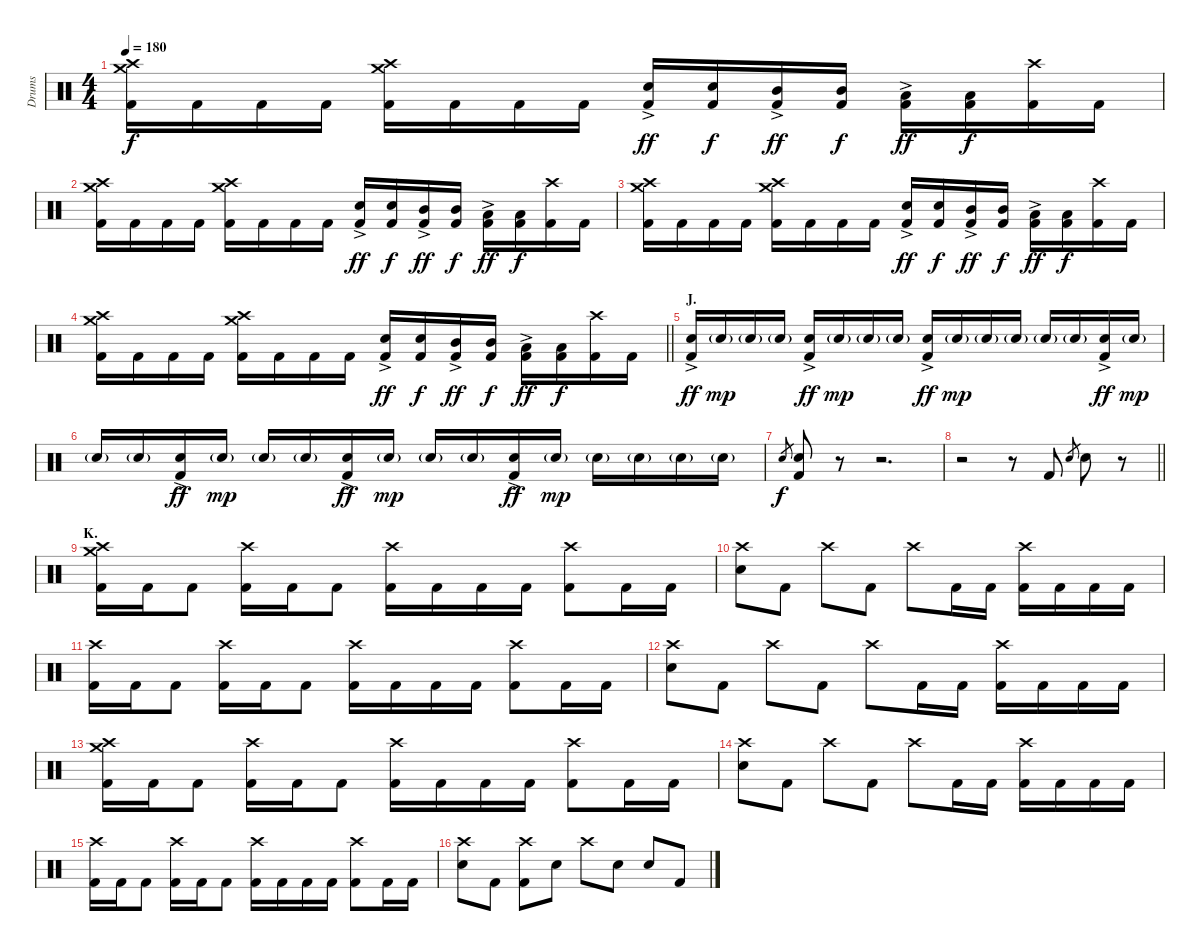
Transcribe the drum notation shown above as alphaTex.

\track ("Drums" "Drums") {instrument percussion}
\staff {score}
\articulation defaults
\ts (4 4)
\tempo 180
\clef neutral
\ks c
("Crash medium (hit)" "Crash high (hit)" "Kick (hit) 2").16{dy f} "Kick (hit) 2".16 "Kick (hit) 2".16 "Kick (hit) 2".16 ("Crash medium (hit)" "Crash high (hit)" "Kick (hit) 2").16 "Kick (hit) 2".16 "Kick (hit) 2".16 "Kick (hit) 2".16 ("Electric Snare (hit)"{ac} "Kick (hit) 2").16{dy ff} ("Electric Snare (hit)" "Kick (hit) 2").16{dy f} ("Mid Tom (hit)"{ac} "Kick (hit) 2").16{dy ff} ("Mid Tom (hit)" "Kick (hit) 2").16{dy f} ("Low Tom (hit)"{ac} "Kick (hit) 2").16{dy ff} ("Low Tom (hit)" "Kick (hit) 2").16{dy f} ("Crash high (hit)" "Kick (hit) 2").16 "Kick (hit) 2".16 |
("Crash medium (hit)" "Crash high (hit)" "Kick (hit) 2").16 "Kick (hit) 2".16 "Kick (hit) 2".16 "Kick (hit) 2".16 ("Crash medium (hit)" "Crash high (hit)" "Kick (hit) 2").16 "Kick (hit) 2".16 "Kick (hit) 2".16 "Kick (hit) 2".16 ("Electric Snare (hit)"{ac} "Kick (hit) 2").16{dy ff} ("Electric Snare (hit)" "Kick (hit) 2").16{dy f} ("Mid Tom (hit)"{ac} "Kick (hit) 2").16{dy ff} ("Mid Tom (hit)" "Kick (hit) 2").16{dy f} ("Low Tom (hit)"{ac} "Kick (hit) 2").16{dy ff} ("Low Tom (hit)" "Kick (hit) 2").16{dy f} ("Crash high (hit)" "Kick (hit) 2").16 "Kick (hit) 2".16 |
("Crash medium (hit)" "Crash high (hit)" "Kick (hit) 2").16 "Kick (hit) 2".16 "Kick (hit) 2".16 "Kick (hit) 2".16 ("Crash medium (hit)" "Crash high (hit)" "Kick (hit) 2").16 "Kick (hit) 2".16 "Kick (hit) 2".16 "Kick (hit) 2".16 ("Electric Snare (hit)"{ac} "Kick (hit) 2").16{dy ff} ("Electric Snare (hit)" "Kick (hit) 2").16{dy f} ("Mid Tom (hit)"{ac} "Kick (hit) 2").16{dy ff} ("Mid Tom (hit)" "Kick (hit) 2").16{dy f} ("Low Tom (hit)"{ac} "Kick (hit) 2").16{dy ff} ("Low Tom (hit)" "Kick (hit) 2").16{dy f} ("Crash high (hit)" "Kick (hit) 2").16 "Kick (hit) 2".16 |
\barLineRight lightlight
("Crash medium (hit)" "Crash high (hit)" "Kick (hit) 2").16 "Kick (hit) 2".16 "Kick (hit) 2".16 "Kick (hit) 2".16 ("Crash medium (hit)" "Crash high (hit)" "Kick (hit) 2").16 "Kick (hit) 2".16 "Kick (hit) 2".16 "Kick (hit) 2".16 ("Electric Snare (hit)"{ac} "Kick (hit) 2").16{dy ff} ("Electric Snare (hit)" "Kick (hit) 2").16{dy f} ("Mid Tom (hit)"{ac} "Kick (hit) 2").16{dy ff} ("Mid Tom (hit)" "Kick (hit) 2").16{dy f} ("Low Tom (hit)"{ac} "Kick (hit) 2").16{dy ff} ("Low Tom (hit)" "Kick (hit) 2").16{dy f} ("Crash high (hit)" "Kick (hit) 2").16 "Kick (hit) 2".16 |
\section ("" "J.")
("Electric Snare (hit)"{ac} "Kick (hit) 2").16{dy ff} "Electric Snare (hit)"{g}.16{dy mp} "Electric Snare (hit)"{g}.16 "Electric Snare (hit)"{g}.16 ("Electric Snare (hit)"{ac} "Kick (hit) 2").16{dy ff} "Electric Snare (hit)"{g}.16{dy mp} "Electric Snare (hit)"{g}.16 "Electric Snare (hit)"{g}.16 ("Electric Snare (hit)"{ac} "Kick (hit) 2").16{dy ff} "Electric Snare (hit)"{g}.16{dy mp} "Electric Snare (hit)"{g}.16 "Electric Snare (hit)"{g}.16 "Electric Snare (hit)"{g}.16 "Electric Snare (hit)"{g}.16 ("Electric Snare (hit)"{ac} "Kick (hit) 2").16{dy ff} "Electric Snare (hit)"{g}.16{dy mp} |
"Electric Snare (hit)"{g}.16 "Electric Snare (hit)"{g}.16 ("Electric Snare (hit)"{ac} "Kick (hit) 2").16{dy ff} "Electric Snare (hit)"{g}.16{dy mp} "Electric Snare (hit)"{g}.16 "Electric Snare (hit)"{g}.16 ("Electric Snare (hit)"{ac} "Kick (hit) 2").16{dy ff} "Electric Snare (hit)"{g}.16{dy mp} "Electric Snare (hit)"{g}.16 "Electric Snare (hit)"{g}.16 ("Electric Snare (hit)"{ac} "Kick (hit) 2").16{dy ff} "Electric Snare (hit)"{g}.16{dy mp} "Electric Snare (hit)"{g}.16 "Electric Snare (hit)"{g}.16 "Electric Snare (hit)"{g}.16 "Electric Snare (hit)"{g}.16 |
"Electric Snare (hit)".8{gr dy f} ("Electric Snare (hit)" "Kick (hit) 2").8 r.8 r.2{d} |
\barLineRight lightlight
r.2 r.8 "Kick (hit) 2".8 "Electric Snare (hit)".8{gr} "Electric Snare (hit)".8 r.8 |
\section ("" "K.")
("Crash medium (hit)" "Crash high (hit)" "Kick (hit) 2").16 "Kick (hit) 2".16 "Kick (hit) 2".8 ("Crash high (hit)" "Kick (hit) 2").16 "Kick (hit) 2".16 "Kick (hit) 2".8 ("Crash high (hit)" "Kick (hit) 2").16 "Kick (hit) 2".16 "Kick (hit) 2".16 "Kick (hit) 2".16 ("Crash high (hit)" "Kick (hit) 2").8 "Kick (hit) 2".16 "Kick (hit) 2".16 |
("Crash high (hit)" "Electric Snare (hit)").8 "Kick (hit) 2".8 "Crash high (hit)".8 "Kick (hit) 2".8 "Crash high (hit)".8 "Kick (hit) 2".16 "Kick (hit) 2".16 ("Crash high (hit)" "Kick (hit) 2").16 "Kick (hit) 2".16 "Kick (hit) 2".16 "Kick (hit) 2".16 |
("Crash high (hit)" "Kick (hit) 2").16 "Kick (hit) 2".16 "Kick (hit) 2".8 ("Crash high (hit)" "Kick (hit) 2").16 "Kick (hit) 2".16 "Kick (hit) 2".8 ("Crash high (hit)" "Kick (hit) 2").16 "Kick (hit) 2".16 "Kick (hit) 2".16 "Kick (hit) 2".16 ("Crash high (hit)" "Kick (hit) 2").8 "Kick (hit) 2".16 "Kick (hit) 2".16 |
("Crash high (hit)" "Electric Snare (hit)").8 "Kick (hit) 2".8 "Crash high (hit)".8 "Kick (hit) 2".8 "Crash high (hit)".8 "Kick (hit) 2".16 "Kick (hit) 2".16 ("Crash high (hit)" "Kick (hit) 2").16 "Kick (hit) 2".16 "Kick (hit) 2".16 "Kick (hit) 2".16 |
("Crash medium (hit)" "Crash high (hit)" "Kick (hit) 2").16 "Kick (hit) 2".16 "Kick (hit) 2".8 ("Crash high (hit)" "Kick (hit) 2").16 "Kick (hit) 2".16 "Kick (hit) 2".8 ("Crash high (hit)" "Kick (hit) 2").16 "Kick (hit) 2".16 "Kick (hit) 2".16 "Kick (hit) 2".16 ("Crash high (hit)" "Kick (hit) 2").8 "Kick (hit) 2".16 "Kick (hit) 2".16 |
("Crash high (hit)" "Electric Snare (hit)").8 "Kick (hit) 2".8 "Crash high (hit)".8 "Kick (hit) 2".8 "Crash high (hit)".8 "Kick (hit) 2".16 "Kick (hit) 2".16 ("Crash high (hit)" "Kick (hit) 2").16 "Kick (hit) 2".16 "Kick (hit) 2".16 "Kick (hit) 2".16 |
("Crash high (hit)" "Kick (hit) 2").16 "Kick (hit) 2".16 "Kick (hit) 2".8 ("Crash high (hit)" "Kick (hit) 2").16 "Kick (hit) 2".16 "Kick (hit) 2".8 ("Crash high (hit)" "Kick (hit) 2").16 "Kick (hit) 2".16 "Kick (hit) 2".16 "Kick (hit) 2".16 ("Crash high (hit)" "Kick (hit) 2").8 "Kick (hit) 2".16 "Kick (hit) 2".16 |
("Crash high (hit)" "Electric Snare (hit)").8 "Kick (hit) 2".8 ("Crash high (hit)" "Kick (hit) 2").8 "Electric Snare (hit)".8 "Crash high (hit)".8 "Electric Snare (hit)".8 "Electric Snare (hit)".8 "Kick (hit) 2".8
